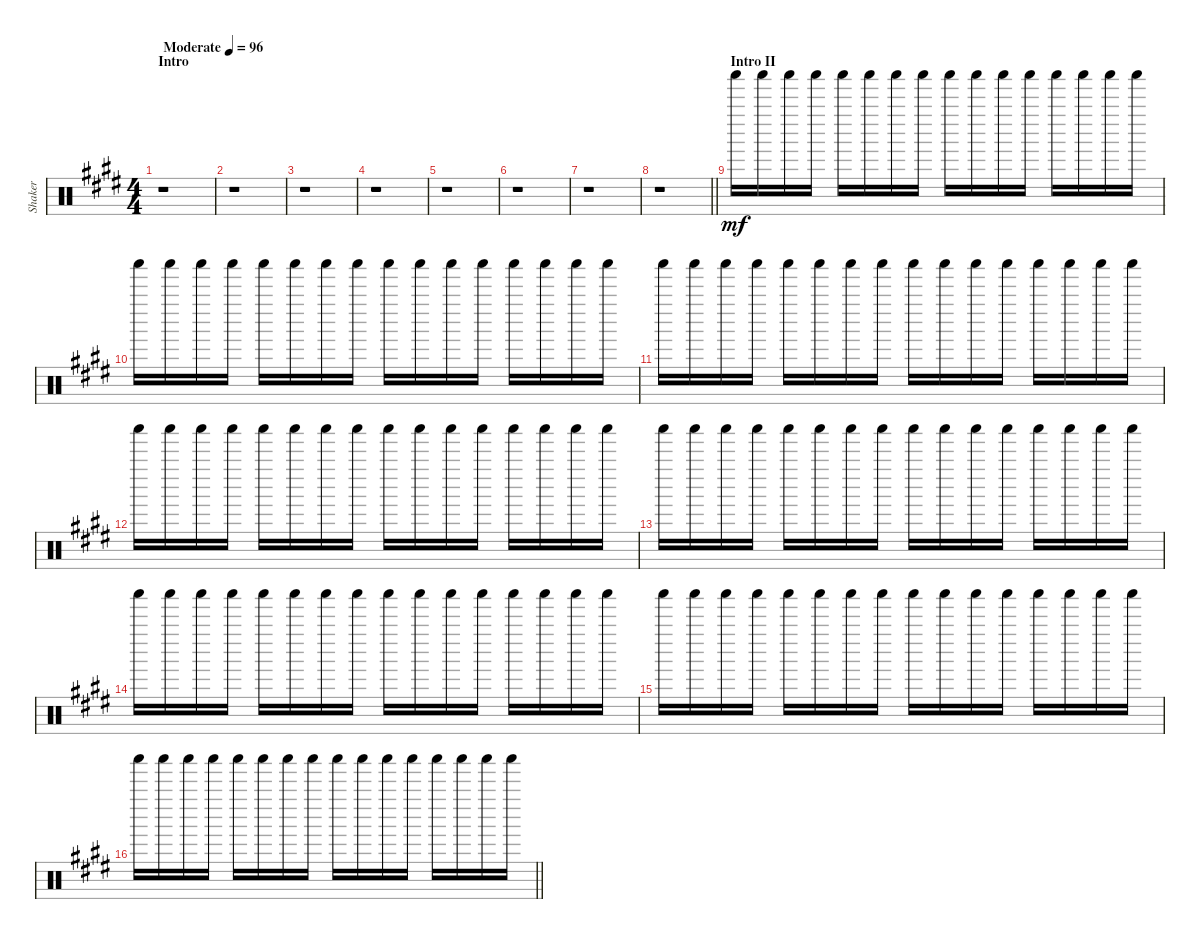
\track ("Shaker" "Shaker") {instrument percussion}
\staff {score}
\articulation defaults
\ts (4 4)
\section ("" "Intro")
\tempo (96 "Moderate")
\clef neutral
\ks e
r.1{dy mf} |
r.1 |
r.1 |
r.1 |
r.1 |
r.1 |
r.1 |
\barLineRight lightlight
r.1 |
\section ("" "Intro II")
"Shaker (hit)".16 "Shaker (hit)".16 "Shaker (hit)".16 "Shaker (hit)".16 "Shaker (hit)".16 "Shaker (hit)".16 "Shaker (hit)".16 "Shaker (hit)".16 "Shaker (hit)".16 "Shaker (hit)".16 "Shaker (hit)".16 "Shaker (hit)".16 "Shaker (hit)".16 "Shaker (hit)".16 "Shaker (hit)".16 "Shaker (hit)".16 |
"Shaker (hit)".16 "Shaker (hit)".16 "Shaker (hit)".16 "Shaker (hit)".16 "Shaker (hit)".16 "Shaker (hit)".16 "Shaker (hit)".16 "Shaker (hit)".16 "Shaker (hit)".16 "Shaker (hit)".16 "Shaker (hit)".16 "Shaker (hit)".16 "Shaker (hit)".16 "Shaker (hit)".16 "Shaker (hit)".16 "Shaker (hit)".16 |
"Shaker (hit)".16 "Shaker (hit)".16 "Shaker (hit)".16 "Shaker (hit)".16 "Shaker (hit)".16 "Shaker (hit)".16 "Shaker (hit)".16 "Shaker (hit)".16 "Shaker (hit)".16 "Shaker (hit)".16 "Shaker (hit)".16 "Shaker (hit)".16 "Shaker (hit)".16 "Shaker (hit)".16 "Shaker (hit)".16 "Shaker (hit)".16 |
"Shaker (hit)".16 "Shaker (hit)".16 "Shaker (hit)".16 "Shaker (hit)".16 "Shaker (hit)".16 "Shaker (hit)".16 "Shaker (hit)".16 "Shaker (hit)".16 "Shaker (hit)".16 "Shaker (hit)".16 "Shaker (hit)".16 "Shaker (hit)".16 "Shaker (hit)".16 "Shaker (hit)".16 "Shaker (hit)".16 "Shaker (hit)".16 |
"Shaker (hit)".16 "Shaker (hit)".16 "Shaker (hit)".16 "Shaker (hit)".16 "Shaker (hit)".16 "Shaker (hit)".16 "Shaker (hit)".16 "Shaker (hit)".16 "Shaker (hit)".16 "Shaker (hit)".16 "Shaker (hit)".16 "Shaker (hit)".16 "Shaker (hit)".16 "Shaker (hit)".16 "Shaker (hit)".16 "Shaker (hit)".16 |
"Shaker (hit)".16 "Shaker (hit)".16 "Shaker (hit)".16 "Shaker (hit)".16 "Shaker (hit)".16 "Shaker (hit)".16 "Shaker (hit)".16 "Shaker (hit)".16 "Shaker (hit)".16 "Shaker (hit)".16 "Shaker (hit)".16 "Shaker (hit)".16 "Shaker (hit)".16 "Shaker (hit)".16 "Shaker (hit)".16 "Shaker (hit)".16 |
"Shaker (hit)".16 "Shaker (hit)".16 "Shaker (hit)".16 "Shaker (hit)".16 "Shaker (hit)".16 "Shaker (hit)".16 "Shaker (hit)".16 "Shaker (hit)".16 "Shaker (hit)".16 "Shaker (hit)".16 "Shaker (hit)".16 "Shaker (hit)".16 "Shaker (hit)".16 "Shaker (hit)".16 "Shaker (hit)".16 "Shaker (hit)".16 |
\barLineRight lightlight "Shaker (hit)".16 "Shaker (hit)".16 "Shaker (hit)".16 "Shaker (hit)".16 "Shaker (hit)".16 "Shaker (hit)".16 "Shaker (hit)".16 "Shaker (hit)".16 "Shaker (hit)".16 "Shaker (hit)".16 "Shaker (hit)".16 "Shaker (hit)".16 "Shaker (hit)".16 "Shaker (hit)".16 "Shaker (hit)".16 "Shaker (hit)".16
